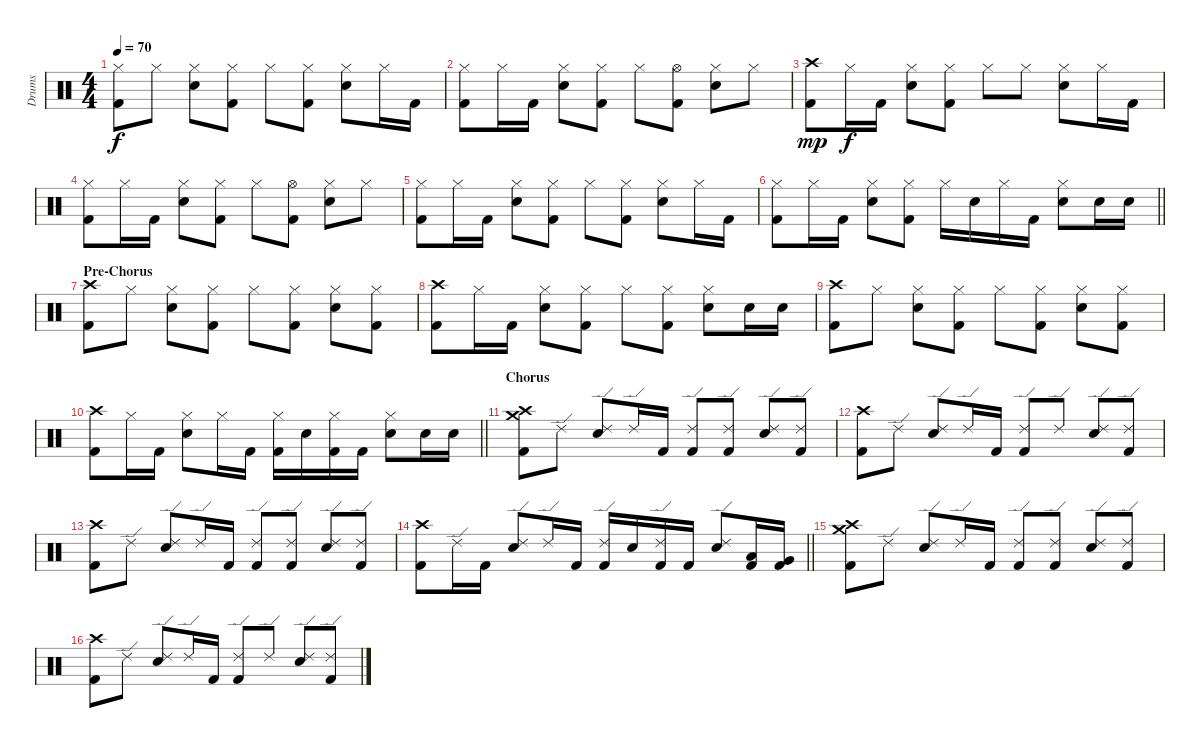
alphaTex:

\track ("Drums" "Drums") {instrument percussion}
\staff {score}
\articulation defaults
\ts (4 4)
\tempo 70
\clef neutral
\ks c
("Hi-Hat (closed)" "Kick (hit) 2").8{dy f} "Hi-Hat (closed)".8 ("Hi-Hat (closed)" "Snare (hit) 2").8 ("Hi-Hat (closed)" "Kick (hit) 2").8 "Hi-Hat (closed)".8 ("Hi-Hat (closed)" "Kick (hit) 2").8 ("Hi-Hat (closed)" "Snare (hit) 2").8 "Hi-Hat (closed)".16 "Kick (hit) 2".16 |
("Hi-Hat (closed)" "Kick (hit) 2").8 "Hi-Hat (closed)".16 "Kick (hit) 2".16 ("Hi-Hat (closed)" "Snare (hit) 2").8 ("Hi-Hat (closed)" "Kick (hit) 2").8 "Hi-Hat (closed)".8 ("Hi-Hat (open)" "Kick (hit) 2").8 ("Hi-Hat (closed)" "Snare (hit) 2").8 "Hi-Hat (closed)".8 |
("Crash high (hit)" "Kick (hit) 2").8{dy mp} "Hi-Hat (closed)".16{dy f} "Kick (hit) 2".16 ("Hi-Hat (closed)" "Snare (hit) 2").8 ("Hi-Hat (closed)" "Kick (hit) 2").8 "Hi-Hat (closed)".8 "Hi-Hat (closed)".8 ("Hi-Hat (closed)" "Snare (hit) 2").8 "Hi-Hat (closed)".16 "Kick (hit) 2".16 |
("Hi-Hat (closed)" "Kick (hit) 2").8 "Hi-Hat (closed)".16 "Kick (hit) 2".16 ("Hi-Hat (closed)" "Snare (hit) 2").8 ("Hi-Hat (closed)" "Kick (hit) 2").8 "Hi-Hat (closed)".8 ("Hi-Hat (open)" "Kick (hit) 2").8 ("Hi-Hat (closed)" "Snare (hit) 2").8 "Hi-Hat (closed)".8 |
("Hi-Hat (closed)" "Kick (hit) 2").8 "Hi-Hat (closed)".16 "Kick (hit) 2".16 ("Hi-Hat (closed)" "Snare (hit) 2").8 ("Hi-Hat (closed)" "Kick (hit) 2").8 "Hi-Hat (closed)".8 ("Hi-Hat (closed)" "Kick (hit) 2").8 ("Hi-Hat (closed)" "Snare (hit) 2").8 "Hi-Hat (closed)".16 "Kick (hit) 2".16 |
\barLineRight lightlight
("Hi-Hat (closed)" "Kick (hit) 2").8 "Hi-Hat (closed)".16 "Kick (hit) 2".16 ("Hi-Hat (closed)" "Snare (hit) 2").8 ("Hi-Hat (closed)" "Kick (hit) 2").8 "Hi-Hat (closed)".16 "Snare (hit) 2".16 "Hi-Hat (closed)".16 "Kick (hit) 2".16 ("Hi-Hat (closed)" "Snare (hit) 2").8 "Snare (hit) 2".16 "Snare (hit) 2".16 |
\section ("" "Pre-Chorus")
("Crash high (hit)" "Kick (hit) 2").8 "Hi-Hat (closed)".8 ("Hi-Hat (closed)" "Snare (hit) 2").8 ("Hi-Hat (closed)" "Kick (hit) 2").8 "Hi-Hat (closed)".8 ("Hi-Hat (closed)" "Kick (hit) 2").8 ("Hi-Hat (closed)" "Snare (hit) 2").8 ("Hi-Hat (closed)" "Kick (hit) 2").8 |
("Crash high (hit)" "Kick (hit) 2").8 "Hi-Hat (closed)".16 "Kick (hit) 2".16 ("Hi-Hat (closed)" "Snare (hit) 2").8 ("Hi-Hat (closed)" "Kick (hit) 2").8 "Hi-Hat (closed)".8 ("Hi-Hat (closed)" "Kick (hit) 2").8 ("Hi-Hat (closed)" "Snare (hit) 2").8 "Snare (hit) 2".16 "Snare (hit) 2".16 |
("Crash high (hit)" "Kick (hit) 2").8 "Hi-Hat (closed)".8 ("Hi-Hat (closed)" "Snare (hit) 2").8 ("Hi-Hat (closed)" "Kick (hit) 2").8 "Hi-Hat (closed)".8 ("Hi-Hat (closed)" "Kick (hit) 2").8 ("Hi-Hat (closed)" "Snare (hit) 2").8 ("Hi-Hat (closed)" "Kick (hit) 2").8 |
\barLineRight lightlight
("Crash high (hit)" "Kick (hit) 2").8 "Hi-Hat (closed)".16 "Kick (hit) 2".16 ("Hi-Hat (closed)" "Snare (hit) 2").8 "Hi-Hat (closed)".16 "Kick (hit) 2".16 ("Hi-Hat (closed)" "Kick (hit) 2").16 "Snare (hit) 2".16 ("Hi-Hat (closed)" "Kick (hit) 2").16 "Kick (hit) 2".16 ("Hi-Hat (closed)" "Snare (hit) 2").8 "Snare (hit) 2".16 "Snare (hit) 2".16 |
\section ("" "Chorus")
("Crash high (hit)" "Crash medium (hit)" "Kick (hit) 2").8 "Ride (edge) 2".8 ("Ride (edge) 2" "Snare (hit) 2").8 "Ride (edge) 2".16 "Kick (hit) 2".16 ("Ride (edge) 2" "Kick (hit) 2").8 ("Ride (edge) 2" "Kick (hit) 2").8 ("Ride (edge) 2" "Snare (hit) 2").8 ("Ride (edge) 2" "Kick (hit) 2").8 |
("Crash high (hit)" "Kick (hit) 2").8 "Ride (edge) 2".8 ("Ride (edge) 2" "Snare (hit) 2").8 "Ride (edge) 2".16 "Kick (hit) 2".16 ("Ride (edge) 2" "Kick (hit) 2").8 "Ride (edge) 2".8 ("Ride (edge) 2" "Snare (hit) 2").8 ("Ride (edge) 2" "Kick (hit) 2").8 |
("Crash high (hit)" "Kick (hit) 2").8 "Ride (edge) 2".8 ("Ride (edge) 2" "Snare (hit) 2").8 "Ride (edge) 2".16 "Kick (hit) 2".16 ("Ride (edge) 2" "Kick (hit) 2").8 ("Ride (edge) 2" "Kick (hit) 2").8 ("Ride (edge) 2" "Snare (hit) 2").8 ("Ride (edge) 2" "Kick (hit) 2").8 |
\barLineRight lightlight
("Crash high (hit)" "Kick (hit) 2").8 "Ride (edge) 2".16 "Kick (hit) 2".16 ("Ride (edge) 2" "Snare (hit) 2").8 "Ride (edge) 2".16 "Kick (hit) 2".16 ("Ride (edge) 2" "Kick (hit) 2").16 "Snare (hit) 2".16 ("Ride (edge) 2" "Kick (hit) 2").16 "Kick (hit) 2".16 ("Ride (edge) 2" "Snare (hit) 2").8 ("Low Tom (hit)" "Kick (hit) 2").16 ("Very Low Tom (hit)" "Kick (hit) 2").16 |
("Crash high (hit)" "Crash medium (hit)" "Kick (hit) 2").8 "Ride (edge) 2".8 ("Ride (edge) 2" "Snare (hit) 2").8 "Ride (edge) 2".16 "Kick (hit) 2".16 ("Ride (edge) 2" "Kick (hit) 2").8 ("Ride (edge) 2" "Kick (hit) 2").8 ("Ride (edge) 2" "Snare (hit) 2").8 ("Ride (edge) 2" "Kick (hit) 2").8 |
("Crash high (hit)" "Kick (hit) 2").8 "Ride (edge) 2".8 ("Ride (edge) 2" "Snare (hit) 2").8 "Ride (edge) 2".16 "Kick (hit) 2".16 ("Ride (edge) 2" "Kick (hit) 2").8 "Ride (edge) 2".8 ("Ride (edge) 2" "Snare (hit) 2").8 ("Ride (edge) 2" "Kick (hit) 2").8
